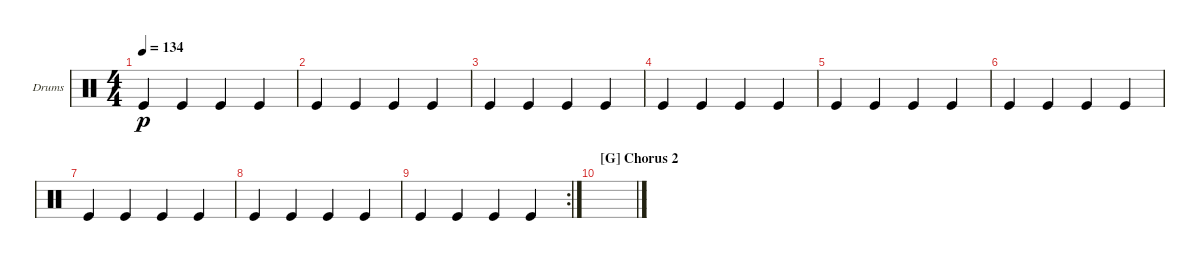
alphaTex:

\defaultSystemsLayout 4
\bracketExtendMode groupsimilarinstruments
\firstSystemTrackNameOrientation horizontal
\otherSystemsTrackNameOrientation horizontal
\track ("Bass Drum" "Drums") {instrument percussion}
\staff {score}
\articulation defaults
\ts (4 4)
\tempo 134
\clef neutral
\ks c "Kick (hit)".4{dy p} "Kick (hit)".4 "Kick (hit)".4 "Kick (hit)".4
|
"Kick (hit)".4 "Kick (hit)".4 "Kick (hit)".4 "Kick (hit)".4 |
"Kick (hit)".4 "Kick (hit)".4 "Kick (hit)".4 "Kick (hit)".4 |
"Kick (hit)".4 "Kick (hit)".4 "Kick (hit)".4 "Kick (hit)".4 |
"Kick (hit)".4 "Kick (hit)".4 "Kick (hit)".4 "Kick (hit)".4 |
"Kick (hit)".4 "Kick (hit)".4 "Kick (hit)".4 "Kick (hit)".4 |
"Kick (hit)".4 "Kick (hit)".4 "Kick (hit)".4 "Kick (hit)".4 |
"Kick (hit)".4 "Kick (hit)".4 "Kick (hit)".4 "Kick (hit)".4 |
\rc 2 "Kick (hit)".4 "Kick (hit)".4 "Kick (hit)".4 "Kick (hit)".4
|
\section ("G" "Chorus 2")
